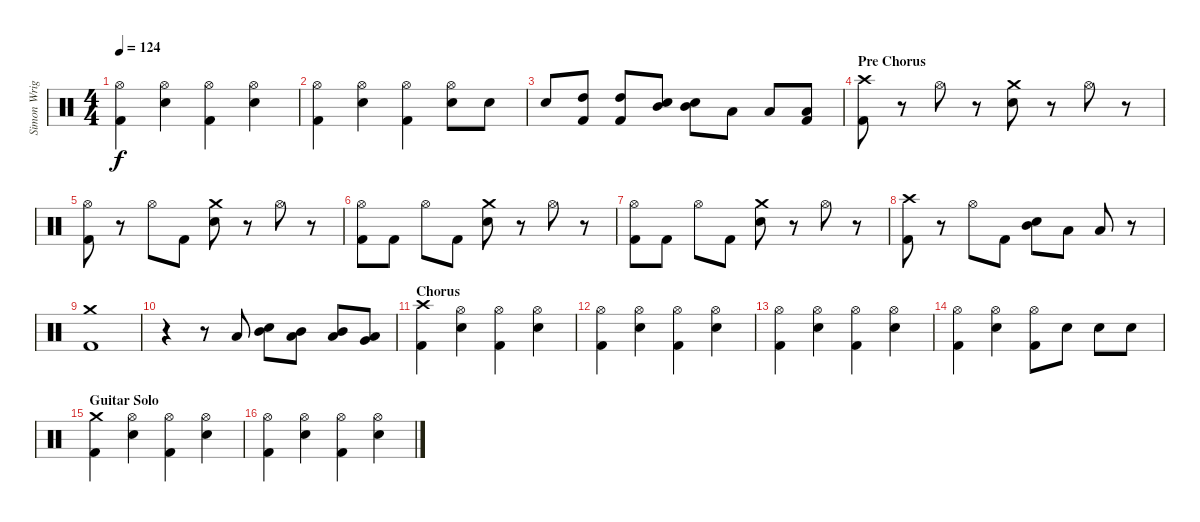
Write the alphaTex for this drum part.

\track ("Simon Wright" "Simon Wrig") {instrument percussion}
\staff {score}
\articulation defaults
\ts (4 4)
\tempo 124
\clef neutral
\ks c
("Hi-Hat (open)" "Kick (hit) 2").4{dy f} ("Hi-Hat (open)" "Electric Snare (hit)").4 ("Hi-Hat (open)" "Kick (hit) 2").4 ("Hi-Hat (open)" "Electric Snare (hit)").4 |
("Hi-Hat (open)" "Kick (hit) 2").4 ("Hi-Hat (open)" "Electric Snare (hit)").4 ("Hi-Hat (open)" "Kick (hit) 2").4 ("Hi-Hat (open)" "Electric Snare (hit)").8 "Electric Snare (hit)".8 |
"Electric Snare (hit)".8 ("High Tom (hit)" "Kick (hit) 2").8 ("High Tom (hit)" "Kick (hit) 2").8 ("Mid Tom (hit)" "Electric Snare (hit)").8 ("Mid Tom (hit)" "Electric Snare (hit)").8 "Low Tom (hit)".8 "Low Tom (hit)".8 ("Low Tom (hit)" "Kick (hit) 2").8 |
\section ("" "Pre Chorus")
("Crash high (hit)" "Kick (hit) 2").8 r.8 "Hi-Hat (open)".8 r.8 ("Crash medium (hit)" "Electric Snare (hit)").8 r.8 "Hi-Hat (open)".8 r.8 |
("Hi-Hat (open)" "Kick (hit) 2").8 r.8 "Hi-Hat (open)".8 "Kick (hit) 2".8 ("Crash medium (hit)" "Electric Snare (hit)").8 r.8 "Hi-Hat (open)".8 r.8 |
("Hi-Hat (open)" "Kick (hit) 2").8 "Kick (hit) 2".8 "Hi-Hat (open)".8 "Kick (hit) 2".8 ("Crash medium (hit)" "Electric Snare (hit)").8 r.8 "Hi-Hat (open)".8 r.8 |
("Hi-Hat (open)" "Kick (hit) 2").8 "Kick (hit) 2".8 "Hi-Hat (open)".8 "Kick (hit) 2".8 ("Crash medium (hit)" "Electric Snare (hit)").8 r.8 "Hi-Hat (open)".8 r.8 |
("Crash high (hit)" "Kick (hit) 2").8 r.8 "Hi-Hat (open)".8 "Kick (hit) 2".8 ("Mid Tom (hit)" "Electric Snare (hit)").8 "Low Tom (hit)".8 "Low Tom (hit)".8 r.8 |
("Crash medium (hit)" "Kick (hit) 2").1 |
r.4 r.8 "Low Tom (hit)".8 ("Mid Tom (hit)" "Electric Snare (hit)").8 ("Mid Tom (hit)" "Low Tom (hit)").8 ("Mid Tom (hit)" "Low Tom (hit)").8 ("Low Tom (hit)" "Very Low Tom (hit)").8 |
\section ("" "Chorus")
("Crash high (hit)" "Kick (hit) 2").4 ("Hi-Hat (open)" "Electric Snare (hit)").4 ("Hi-Hat (open)" "Kick (hit) 2").4 ("Hi-Hat (open)" "Electric Snare (hit)").4 |
("Hi-Hat (open)" "Kick (hit) 2").4 ("Hi-Hat (open)" "Electric Snare (hit)").4 ("Hi-Hat (open)" "Kick (hit) 2").4 ("Hi-Hat (open)" "Electric Snare (hit)").4 |
("Hi-Hat (open)" "Kick (hit) 2").4 ("Hi-Hat (open)" "Electric Snare (hit)").4 ("Hi-Hat (open)" "Kick (hit) 2").4 ("Hi-Hat (open)" "Electric Snare (hit)").4 |
("Hi-Hat (open)" "Kick (hit) 2").4 ("Hi-Hat (open)" "Electric Snare (hit)").4 ("Hi-Hat (open)" "Kick (hit) 2").8 "Electric Snare (hit)".8 "Electric Snare (hit)".8 "Electric Snare (hit)".8 |
\section ("" "Guitar Solo")
("Crash medium (hit)" "Kick (hit) 2").4 ("Hi-Hat (open)" "Electric Snare (hit)").4 ("Hi-Hat (open)" "Kick (hit) 2").4 ("Hi-Hat (open)" "Electric Snare (hit)").4 |
("Hi-Hat (open)" "Kick (hit) 2").4 ("Hi-Hat (open)" "Electric Snare (hit)").4 ("Hi-Hat (open)" "Kick (hit) 2").4 ("Hi-Hat (open)" "Electric Snare (hit)").4
